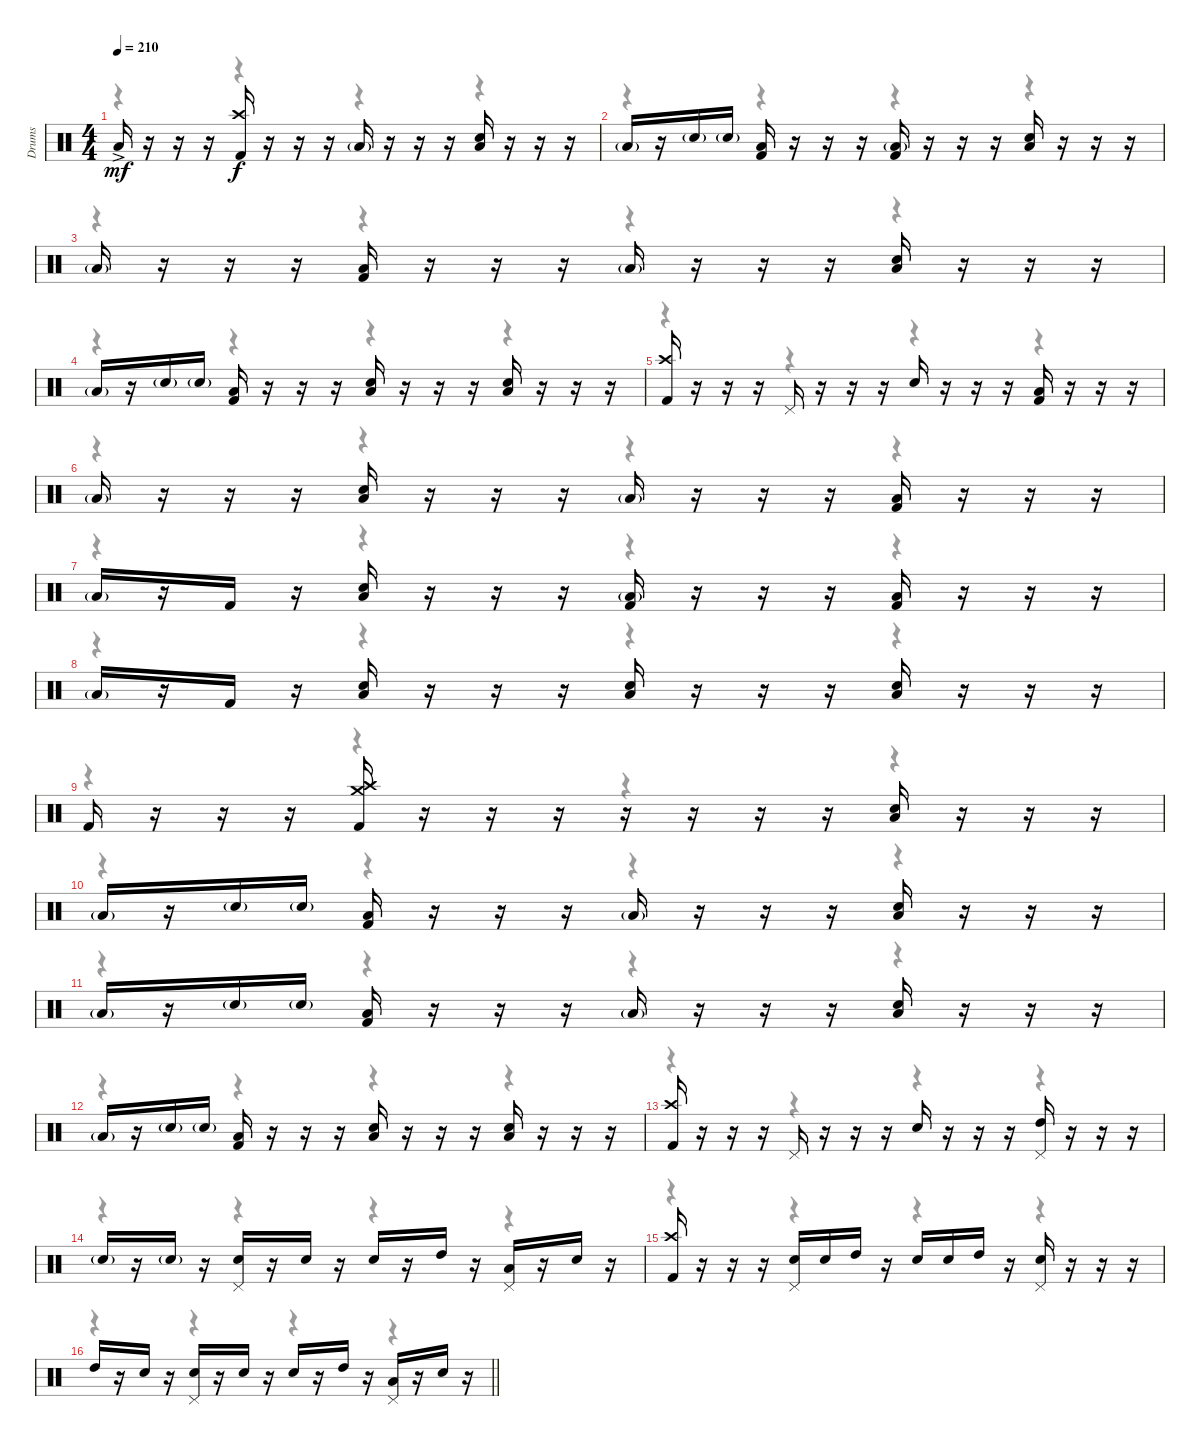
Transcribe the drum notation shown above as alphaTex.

\track ("Drums" "Drums") {instrument percussion}
\staff {score}
\articulation defaults
\voice
\ts (4 4)
\tempo 210
\clef neutral
\ks c "Low Tom (hit)"{ac}.16{dy mf}
r.16 r.16 r.16 ("Kick (hit) 2" "Crash high (hit)").16{dy f} r.16 r.16 r.16 "Low Tom (hit)"{g}.16 r.16 r.16 r.16 ("Snare (hit) 2" "Low Tom (hit)").16 r.16 r.16 r.16 |
"Low Tom (hit)"{g}.16 r.16 "Snare (hit) 2"{g}.16 "Snare (hit) 2"{g}.16 ("Kick (hit) 2" "Low Tom (hit)").16 r.16 r.16 r.16 ("Kick (hit) 2" "Low Tom (hit)"{g}).16 r.16 r.16 r.16 ("Snare (hit) 2" "Low Tom (hit)").16 r.16 r.16 r.16 |
"Low Tom (hit)"{g}.16 r.16 r.16 r.16 ("Kick (hit) 2" "Low Tom (hit)").16 r.16 r.16 r.16 "Low Tom (hit)"{g}.16 r.16 r.16 r.16 ("Snare (hit) 2" "Low Tom (hit)").16 r.16 r.16 r.16 |
"Low Tom (hit)"{g}.16 r.16 "Snare (hit) 2"{g}.16 "Snare (hit) 2"{g}.16 ("Kick (hit) 2" "Low Tom (hit)").16 r.16 r.16 r.16 ("Snare (hit) 2" "Low Tom (hit)").16 r.16 r.16 r.16 ("Snare (hit) 2" "Low Tom (hit)").16 r.16 r.16 r.16 |
("Kick (hit) 2" "Crash high (hit)").16 r.16 r.16 r.16 "Pedal Hi-Hat (hit)".16 r.16 r.16 r.16 "Snare (hit) 2".16 r.16 r.16 r.16 ("Kick (hit) 2" "Low Tom (hit)").16 r.16 r.16 r.16 |
"Low Tom (hit)"{g}.16 r.16 r.16 r.16 ("Snare (hit) 2" "Low Tom (hit)").16 r.16 r.16 r.16 "Low Tom (hit)"{g}.16 r.16 r.16 r.16 ("Kick (hit) 2" "Low Tom (hit)").16 r.16 r.16 r.16 |
"Low Tom (hit)"{g}.16 r.16 "Kick (hit) 2".16 r.16 ("Snare (hit) 2" "Low Tom (hit)").16 r.16 r.16 r.16 ("Kick (hit) 2" "Low Tom (hit)"{g}).16 r.16 r.16 r.16 ("Kick (hit) 2" "Low Tom (hit)").16 r.16 r.16 r.16 |
"Low Tom (hit)"{g}.16 r.16 "Kick (hit) 2".16 r.16 ("Snare (hit) 2" "Low Tom (hit)").16 r.16 r.16 r.16 ("Snare (hit) 2" "Low Tom (hit)").16 r.16 r.16 r.16 ("Snare (hit) 2" "Low Tom (hit)").16 r.16 r.16 r.16 |
"Kick (hit) 2".16 r.16 r.16 r.16 ("Kick (hit) 2" "Crash high (hit)" "Crash medium (hit)").16 r.16 r.16 r.16 r.16 r.16 r.16 r.16 ("Snare (hit) 2" "Low Tom (hit)").16 r.16 r.16 r.16 |
"Low Tom (hit)"{g}.16 r.16 "Snare (hit) 2"{g}.16 "Snare (hit) 2"{g}.16 ("Kick (hit) 2" "Low Tom (hit)").16 r.16 r.16 r.16 "Low Tom (hit)"{g}.16 r.16 r.16 r.16 ("Snare (hit) 2" "Low Tom (hit)").16 r.16 r.16 r.16 |
"Low Tom (hit)"{g}.16 r.16 "Snare (hit) 2"{g}.16 "Snare (hit) 2"{g}.16 ("Kick (hit) 2" "Low Tom (hit)").16 r.16 r.16 r.16 "Low Tom (hit)"{g}.16 r.16 r.16 r.16 ("Snare (hit) 2" "Low Tom (hit)").16 r.16 r.16 r.16 |
"Low Tom (hit)"{g}.16 r.16 "Snare (hit) 2"{g}.16 "Snare (hit) 2"{g}.16 ("Kick (hit) 2" "Low Tom (hit)").16 r.16 r.16 r.16 ("Snare (hit) 2" "Low Tom (hit)").16 r.16 r.16 r.16 ("Snare (hit) 2" "Low Tom (hit)").16 r.16 r.16 r.16 |
("Kick (hit) 2" "Crash high (hit)").16 r.16 r.16 r.16 "Pedal Hi-Hat (hit)".16 r.16 r.16 r.16 "Snare (hit) 2".16 r.16 r.16 r.16 ("High Tom (hit)" "Pedal Hi-Hat (hit)").16 r.16 r.16 r.16 |
"Snare (hit) 2"{g}.16 r.16 "Snare (hit) 2"{g}.16 r.16 ("Snare (hit) 2" "Pedal Hi-Hat (hit)").16 r.16 "Snare (hit) 2".16 r.16 "Snare (hit) 2".16 r.16 "High Tom (hit)".16 r.16 ("Low Tom (hit)" "Pedal Hi-Hat (hit)").16 r.16 "Snare (hit) 2".16 r.16 |
("Kick (hit) 2" "Crash high (hit)").16 r.16 r.16 r.16 ("Snare (hit) 2" "Pedal Hi-Hat (hit)").16 "Snare (hit) 2".16 "High Tom (hit)".16 r.16 "Snare (hit) 2".16 "Snare (hit) 2".16 "High Tom (hit)".16 r.16 ("Snare (hit) 2" "Pedal Hi-Hat (hit)").16 r.16 r.16 r.16 |
\barLineRight lightlight "High Tom (hit)".16
r.16 "Snare (hit) 2".16 r.16 ("Snare (hit) 2" "Pedal Hi-Hat (hit)").16 r.16 "Snare (hit) 2".16 r.16 "Snare (hit) 2".16 r.16 "High Tom (hit)".16 r.16 ("Low Tom (hit)" "Pedal Hi-Hat (hit)").16 r.16 "Snare (hit) 2".16 r.16
\voice
\clef neutral
\ottava regular
\simile none
\ks c
r.4{dy mf} r.4 r.4 r.4 |
r.4 r.4 r.4 r.4 |
r.4 r.4 r.4 r.4 |
r.4 r.4 r.4 r.4 |
r.4 r.4 r.4 r.4 |
r.4 r.4 r.4 r.4 |
r.4 r.4 r.4 r.4 |
r.4 r.4 r.4 r.4 |
r.4 r.4 r.4 r.4 |
r.4 r.4 r.4 r.4 |
r.4 r.4 r.4 r.4 |
r.4 r.4 r.4 r.4 |
r.4 r.4 r.4 r.4 |
r.4 r.4 r.4 r.4 |
r.4 r.4 r.4 r.4 |
\barLineRight lightlight
r.4 r.4 r.4 r.4
